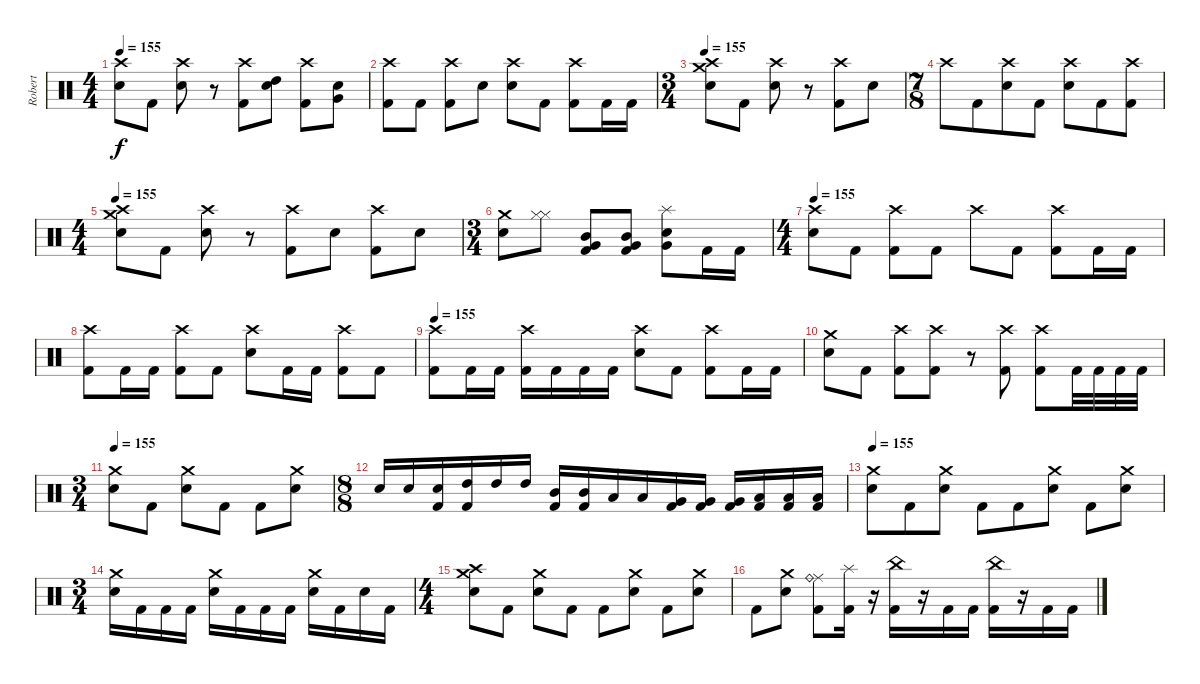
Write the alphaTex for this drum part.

\track ("Robert" "Robert") {instrument percussion}
\staff {score}
\articulation defaults
\ts (4 4)
\tempo 155
\clef neutral
\ks c
("Electric Snare (hit)" "Crash high (hit)").8{dy f} "Kick (hit) 2".8 ("Crash high (hit)" "Electric Snare (hit)").8 r.8 ("Crash high (hit)" "Kick (hit) 2").8 ("Electric Snare (hit)" "High Tom (hit)").8 ("Crash high (hit)" "Kick (hit) 2").8 ("Electric Snare (hit)" "Very Low Tom (hit)").8 |
("Crash high (hit)" "Kick (hit) 2").8 "Kick (hit) 2".8 ("Crash high (hit)" "Kick (hit) 2").8 "Electric Snare (hit)".8 ("Crash high (hit)" "Electric Snare (hit)").8 "Kick (hit) 2".8 ("Kick (hit) 2" "Crash high (hit)").8 "Kick (hit) 2".16 "Kick (hit) 2".16 |
\ts (3 4)
\tempo 155
("Crash medium (hit)" "Electric Snare (hit)" "Crash high (hit)").8 "Kick (hit) 2".8 ("Crash high (hit)" "Electric Snare (hit)").8 r.8 ("Crash high (hit)" "Kick (hit) 2").8 "Electric Snare (hit)".8 |
\ts (7 8)
"Crash high (hit)".8 "Kick (hit) 2".8 ("Crash high (hit)" "Electric Snare (hit)").8 "Kick (hit) 2".8 ("Crash high (hit)" "Electric Snare (hit)").8 "Kick (hit) 2".8 ("Crash high (hit)" "Kick (hit) 2").8 |
\ts (4 4)
\tempo 155
("Crash medium (hit)" "Electric Snare (hit)" "Crash high (hit)").8 "Kick (hit) 2".8 ("Crash high (hit)" "Electric Snare (hit)").8 r.8 ("Crash high (hit)" "Kick (hit) 2").8 "Electric Snare (hit)".8 ("Crash high (hit)" "Kick (hit) 2").8 "Electric Snare (hit)".8 |
\ts (3 4)
("Crash medium (hit)" "Electric Snare (hit)").8 ("Hi-Hat (closed)" "Hi-Hat (closed)").8 ("Very Low Tom (hit)" "Mid Tom (hit)" "Kick (hit) 2").8 ("Very Low Tom (hit)" "Mid Tom (hit)" "Kick (hit) 2").8 ("Splash (hit)" "Electric Snare (hit)" "Very Low Tom (hit)").8 "Kick (hit) 2".16 "Kick (hit) 2".16 |
\ts (4 4)
\tempo 155
("Electric Snare (hit)" "Crash high (hit)").8 "Kick (hit) 2".8 ("Kick (hit) 2" "Crash high (hit)").8 "Kick (hit) 2".8 "Crash high (hit)".8 "Kick (hit) 2".8 ("Kick (hit) 2" "Crash high (hit)").8 "Kick (hit) 2".16 "Kick (hit) 2".16 |
("Crash high (hit)" "Kick (hit) 2").8 "Kick (hit) 2".16 "Kick (hit) 2".16 ("Crash high (hit)" "Kick (hit) 2").8 "Kick (hit) 2".8 ("Crash high (hit)" "Electric Snare (hit)").8 "Kick (hit) 2".16 "Kick (hit) 2".16 ("Crash high (hit)" "Kick (hit) 2").8 "Kick (hit) 2".8 |
\tempo 155
("Crash high (hit)" "Kick (hit) 2").8 "Kick (hit) 2".16 "Kick (hit) 2".16 ("Crash high (hit)" "Kick (hit) 2").16 "Kick (hit) 2".16 "Kick (hit) 2".16 "Kick (hit) 2".16 ("Crash high (hit)" "Electric Snare (hit)").8 "Kick (hit) 2".8 ("Crash high (hit)" "Kick (hit) 2").8 "Kick (hit) 2".16 "Kick (hit) 2".16 |
("Electric Snare (hit)" "Crash medium (hit)").8 "Kick (hit) 2".8 ("Kick (hit) 2" "Crash high (hit)").8 ("Kick (hit) 2" "Crash high (hit)").8 r.8 ("Kick (hit) 2" "Crash high (hit)").8 ("Kick (hit) 2" "Crash high (hit)").8 "Kick (hit) 2".32 "Kick (hit) 2".32 "Kick (hit) 2".32 "Kick (hit) 2".32 |
\ts (3 4)
\tempo 155
("Crash medium (hit)" "Electric Snare (hit)").8 "Kick (hit) 2".8 ("Crash medium (hit)" "Electric Snare (hit)").8 "Kick (hit) 2".8 "Kick (hit) 2".8 ("Crash medium (hit)" "Electric Snare (hit)").8 |
\ts (8 8)
"Electric Snare (hit)".16 "Electric Snare (hit)".16 ("Electric Snare (hit)" "Kick (hit) 2").16 ("High Tom (hit)" "Kick (hit) 2").16 "High Tom (hit)".16 "High Tom (hit)".16 ("Mid Tom (hit)" "Kick (hit) 2").16 ("Mid Tom (hit)" "Kick (hit) 2").16 "Low Tom (hit)".16 "Low Tom (hit)".16 ("Very Low Tom (hit)" "Kick (hit) 2").16 ("Very Low Tom (hit)" "Kick (hit) 2").16 ("Very Low Tom (hit)" "Kick (hit) 2").16 ("Low Floor Tom (hit)" "Kick (hit) 2").16 ("Low Floor Tom (hit)" "Kick (hit) 2").16 ("Low Floor Tom (hit)" "Kick (hit) 2").16 |
\tempo 155
("Crash medium (hit)" "Electric Snare (hit)").8 "Kick (hit) 2".8 ("Crash medium (hit)" "Electric Snare (hit)").8 "Kick (hit) 2".8 "Kick (hit) 2".8 ("Crash medium (hit)" "Electric Snare (hit)").8 "Kick (hit) 2".8 ("Electric Snare (hit)" "Crash medium (hit)").8 |
\ts (3 4)
("Crash medium (hit)" "Electric Snare (hit)").16 "Kick (hit) 2".16 "Kick (hit) 2".16 "Kick (hit) 2".16 ("Crash medium (hit)" "Electric Snare (hit)").16 "Kick (hit) 2".16 "Kick (hit) 2".16 "Kick (hit) 2".16 ("Crash medium (hit)" "Electric Snare (hit)").16 "Kick (hit) 2".16 "Electric Snare (hit)".16 "Kick (hit) 2".16 |
\ts (4 4)
("Crash high (hit)" "Crash medium (hit)" "Electric Snare (hit)").8 "Kick (hit) 2".8 ("Crash medium (hit)" "Electric Snare (hit)").8 "Kick (hit) 2".8 "Kick (hit) 2".8 ("Crash medium (hit)" "Electric Snare (hit)").8 "Kick (hit) 2".8 ("Crash medium (hit)" "Electric Snare (hit)").8 |
"Kick (hit) 2".8 ("Crash medium (hit)" "Electric Snare (hit)").8 ("Ride (middle)" "Ride (bell)" "Kick (hit) 2").8 ("Splash (hit)" "Kick (hit) 2").16 r.16 ("China (hit)" "Kick (hit) 2").16 r.16 "Kick (hit) 2".16 "Kick (hit) 2".16 ("China (hit)" "Kick (hit) 2").16 r.16 "Kick (hit) 2".16 "Kick (hit) 2".16
